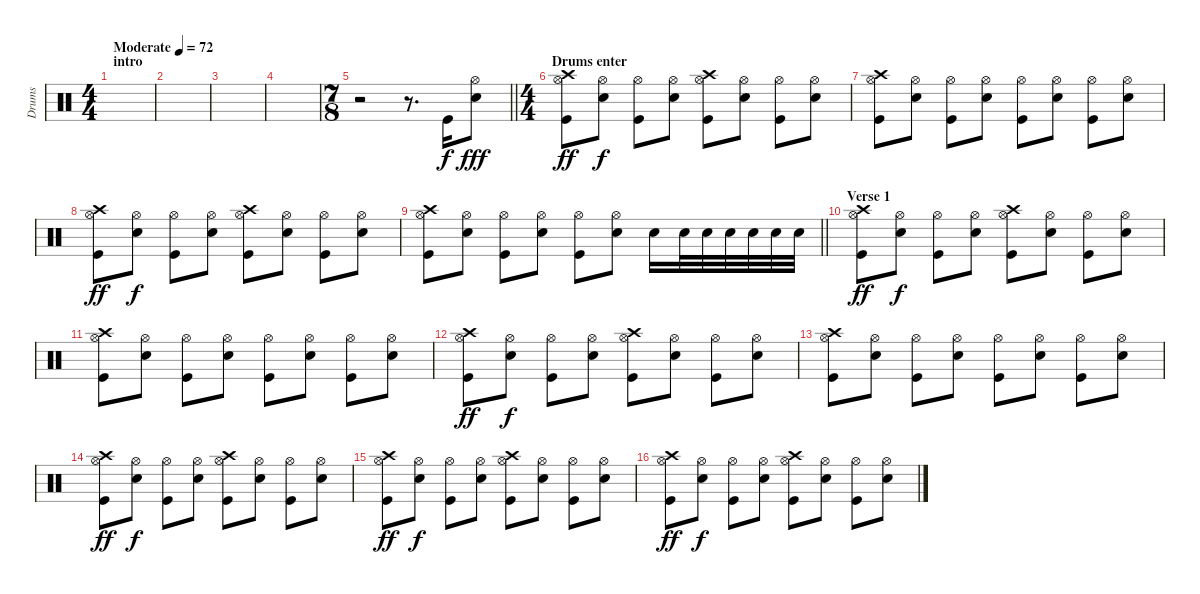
\track ("Drums" "Drums") {instrument percussion}
\staff {score}
\articulation defaults
\ts (4 4)
\section ("" "intro")
\tempo (72 "Moderate")
\clef neutral
\ks c
|
|
|
|
\ts (7 8)
\barLineRight lightlight
r.2 r.8{d} "Kick (hit)".16 ("Electric Snare (hit)" "Hi-Hat (open)").8{dy fff} |
\ts (4 4)
\section ("" "Drums enter")
("Crash high (hit)" "Hi-Hat (open)" "Kick (hit)").8{dy ff} ("Electric Snare (hit)" "Hi-Hat (open)").8{dy f} ("Hi-Hat (open)" "Kick (hit)").8 ("Electric Snare (hit)" "Hi-Hat (open)").8 ("Crash high (hit)" "Hi-Hat (open)" "Kick (hit)").8 ("Electric Snare (hit)" "Hi-Hat (open)").8 ("Hi-Hat (open)" "Kick (hit)").8 ("Electric Snare (hit)" "Hi-Hat (open)").8 |
("Crash high (hit)" "Hi-Hat (open)" "Kick (hit)").8 ("Electric Snare (hit)" "Hi-Hat (open)").8 ("Hi-Hat (open)" "Kick (hit)").8 ("Electric Snare (hit)" "Hi-Hat (open)").8 ("Hi-Hat (open)" "Kick (hit)").8 ("Electric Snare (hit)" "Hi-Hat (open)").8 ("Hi-Hat (open)" "Kick (hit)").8 ("Electric Snare (hit)" "Hi-Hat (open)").8 |
("Crash high (hit)" "Hi-Hat (open)" "Kick (hit)").8{dy ff} ("Electric Snare (hit)" "Hi-Hat (open)").8{dy f} ("Hi-Hat (open)" "Kick (hit)").8 ("Electric Snare (hit)" "Hi-Hat (open)").8 ("Crash high (hit)" "Hi-Hat (open)" "Kick (hit)").8 ("Electric Snare (hit)" "Hi-Hat (open)").8 ("Hi-Hat (open)" "Kick (hit)").8 ("Electric Snare (hit)" "Hi-Hat (open)").8 |
\barLineRight lightlight
("Crash high (hit)" "Hi-Hat (open)" "Kick (hit)").8 ("Electric Snare (hit)" "Hi-Hat (open)").8 ("Hi-Hat (open)" "Kick (hit)").8 ("Electric Snare (hit)" "Hi-Hat (open)").8 ("Hi-Hat (open)" "Kick (hit)").8 ("Electric Snare (hit)" "Hi-Hat (open)").8 "Electric Snare (hit)".16 "Electric Snare (hit)".32 "Electric Snare (hit)".32 "Electric Snare (hit)".32 "Electric Snare (hit)".32 "Electric Snare (hit)".32 "Electric Snare (hit)".32 |
\section ("" "Verse 1")
("Crash high (hit)" "Hi-Hat (open)" "Kick (hit)").8{dy ff} ("Electric Snare (hit)" "Hi-Hat (open)").8{dy f} ("Hi-Hat (open)" "Kick (hit)").8 ("Electric Snare (hit)" "Hi-Hat (open)").8 ("Crash high (hit)" "Hi-Hat (open)" "Kick (hit)").8 ("Electric Snare (hit)" "Hi-Hat (open)").8 ("Hi-Hat (open)" "Kick (hit)").8 ("Electric Snare (hit)" "Hi-Hat (open)").8 |
("Crash high (hit)" "Hi-Hat (open)" "Kick (hit)").8 ("Electric Snare (hit)" "Hi-Hat (open)").8 ("Hi-Hat (open)" "Kick (hit)").8 ("Electric Snare (hit)" "Hi-Hat (open)").8 ("Hi-Hat (open)" "Kick (hit)").8 ("Electric Snare (hit)" "Hi-Hat (open)").8 ("Hi-Hat (open)" "Kick (hit)").8 ("Electric Snare (hit)" "Hi-Hat (open)").8 |
("Crash high (hit)" "Hi-Hat (open)" "Kick (hit)").8{dy ff} ("Electric Snare (hit)" "Hi-Hat (open)").8{dy f} ("Hi-Hat (open)" "Kick (hit)").8 ("Electric Snare (hit)" "Hi-Hat (open)").8 ("Crash high (hit)" "Hi-Hat (open)" "Kick (hit)").8 ("Electric Snare (hit)" "Hi-Hat (open)").8 ("Hi-Hat (open)" "Kick (hit)").8 ("Electric Snare (hit)" "Hi-Hat (open)").8 |
("Crash high (hit)" "Hi-Hat (open)" "Kick (hit)").8 ("Electric Snare (hit)" "Hi-Hat (open)").8 ("Hi-Hat (open)" "Kick (hit)").8 ("Electric Snare (hit)" "Hi-Hat (open)").8 ("Hi-Hat (open)" "Kick (hit)").8 ("Electric Snare (hit)" "Hi-Hat (open)").8 ("Hi-Hat (open)" "Kick (hit)").8 ("Electric Snare (hit)" "Hi-Hat (open)").8 |
("Crash high (hit)" "Hi-Hat (open)" "Kick (hit)").8{dy ff} ("Electric Snare (hit)" "Hi-Hat (open)").8{dy f} ("Hi-Hat (open)" "Kick (hit)").8 ("Electric Snare (hit)" "Hi-Hat (open)").8 ("Crash high (hit)" "Hi-Hat (open)" "Kick (hit)").8 ("Electric Snare (hit)" "Hi-Hat (open)").8 ("Hi-Hat (open)" "Kick (hit)").8 ("Electric Snare (hit)" "Hi-Hat (open)").8 |
("Crash high (hit)" "Hi-Hat (open)" "Kick (hit)").8{dy ff} ("Electric Snare (hit)" "Hi-Hat (open)").8{dy f} ("Hi-Hat (open)" "Kick (hit)").8 ("Electric Snare (hit)" "Hi-Hat (open)").8 ("Crash high (hit)" "Hi-Hat (open)" "Kick (hit)").8 ("Electric Snare (hit)" "Hi-Hat (open)").8 ("Hi-Hat (open)" "Kick (hit)").8 ("Electric Snare (hit)" "Hi-Hat (open)").8 |
("Crash high (hit)" "Hi-Hat (open)" "Kick (hit)").8{dy ff} ("Electric Snare (hit)" "Hi-Hat (open)").8{dy f} ("Hi-Hat (open)" "Kick (hit)").8 ("Electric Snare (hit)" "Hi-Hat (open)").8 ("Crash high (hit)" "Hi-Hat (open)" "Kick (hit)").8 ("Electric Snare (hit)" "Hi-Hat (open)").8 ("Hi-Hat (open)" "Kick (hit)").8 ("Electric Snare (hit)" "Hi-Hat (open)").8
